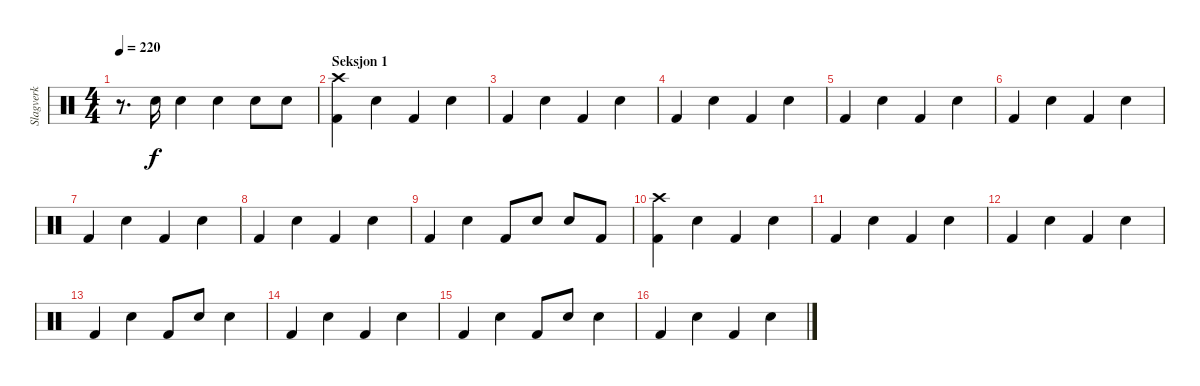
\track ("Slagverk" "Slagverk") {instrument percussion}
\staff {score}
\articulation defaults
\ts (4 4)
\tempo 220
\clef neutral
\ks c
r.8{d dy f} "Snare (hit) 2".16 "Snare (hit) 2".4 "Snare (hit) 2".4 "Snare (hit) 2".8 "Snare (hit) 2".8 |
\section ("" "Seksjon 1")
("Crash high (hit)" "Kick (hit) 2").4 "Snare (hit) 2".4 "Kick (hit) 2".4 "Snare (hit) 2".4 |
"Kick (hit) 2".4 "Snare (hit) 2".4 "Kick (hit) 2".4 "Snare (hit) 2".4 |
"Kick (hit) 2".4 "Snare (hit) 2".4 "Kick (hit) 2".4 "Snare (hit) 2".4 |
"Kick (hit) 2".4 "Snare (hit) 2".4 "Kick (hit) 2".4 "Snare (hit) 2".4 |
"Kick (hit) 2".4 "Snare (hit) 2".4 "Kick (hit) 2".4 "Snare (hit) 2".4 |
"Kick (hit) 2".4 "Snare (hit) 2".4 "Kick (hit) 2".4 "Snare (hit) 2".4 |
"Kick (hit) 2".4 "Snare (hit) 2".4 "Kick (hit) 2".4 "Snare (hit) 2".4 |
"Kick (hit) 2".4 "Snare (hit) 2".4 "Kick (hit) 2".8 "Snare (hit) 2".8 "Snare (hit) 2".8 "Kick (hit) 2".8 |
("Crash high (hit)" "Kick (hit) 2").4 "Snare (hit) 2".4 "Kick (hit) 2".4 "Snare (hit) 2".4 |
"Kick (hit) 2".4 "Snare (hit) 2".4 "Kick (hit) 2".4 "Snare (hit) 2".4 |
"Kick (hit) 2".4 "Snare (hit) 2".4 "Kick (hit) 2".4 "Snare (hit) 2".4 |
"Kick (hit) 2".4 "Snare (hit) 2".4 "Kick (hit) 2".8 "Snare (hit) 2".8 "Snare (hit) 2".4 |
"Kick (hit) 2".4 "Snare (hit) 2".4 "Kick (hit) 2".4 "Snare (hit) 2".4 |
"Kick (hit) 2".4 "Snare (hit) 2".4 "Kick (hit) 2".8 "Snare (hit) 2".8 "Snare (hit) 2".4 |
"Kick (hit) 2".4 "Snare (hit) 2".4 "Kick (hit) 2".4 "Snare (hit) 2".4
